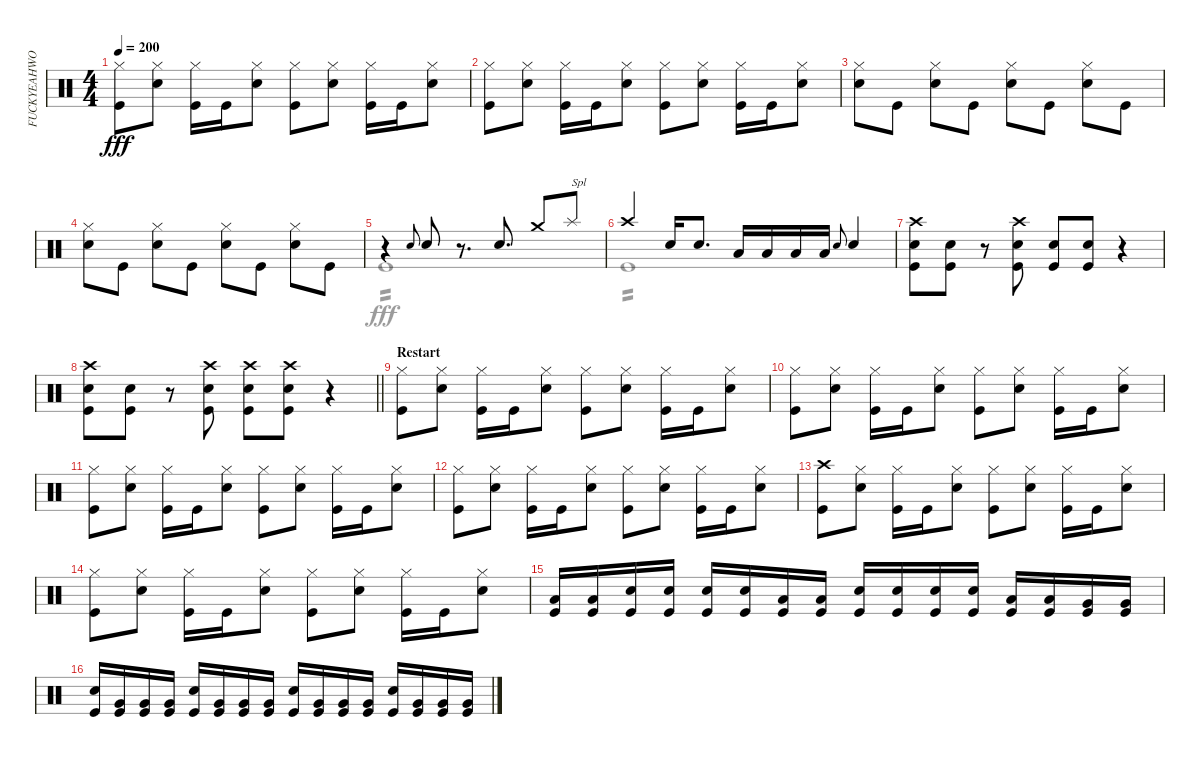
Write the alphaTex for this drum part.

\track ("FUCKYEAHWOOTDAVEMACKINTOSH!(Percussion)" "FUCKYEAHWO") {instrument percussion}
\staff {score}
\articulation defaults
\voice
\ts (4 4)
\tempo 200
\clef neutral
\ks c
("Kick (hit)" "Hi-Hat (closed)").8{dy fff} ("Snare (hit) 2" "Hi-Hat (closed)").8 ("Kick (hit)" "Hi-Hat (closed)").16 "Kick (hit)".16 ("Snare (hit) 2" "Hi-Hat (closed)").8 ("Kick (hit)" "Hi-Hat (closed)").8 ("Snare (hit) 2" "Hi-Hat (closed)").8 ("Kick (hit)" "Hi-Hat (closed)").16 "Kick (hit)".16 ("Snare (hit) 2" "Hi-Hat (closed)").8 |
("Kick (hit)" "Hi-Hat (closed)").8 ("Snare (hit) 2" "Hi-Hat (closed)").8 ("Kick (hit)" "Hi-Hat (closed)").16 "Kick (hit)".16 ("Snare (hit) 2" "Hi-Hat (closed)").8 ("Kick (hit)" "Hi-Hat (closed)").8 ("Snare (hit) 2" "Hi-Hat (closed)").8 ("Kick (hit)" "Hi-Hat (closed)").16 "Kick (hit)".16 ("Snare (hit) 2" "Hi-Hat (closed)").8 |
("Snare (hit) 2" "Hi-Hat (closed)").8 "Kick (hit)".8 ("Snare (hit) 2" "Hi-Hat (closed)").8 "Kick (hit)".8 ("Snare (hit) 2" "Hi-Hat (closed)").8 "Kick (hit)".8 ("Snare (hit) 2" "Hi-Hat (closed)").8 "Kick (hit)".8 |
("Snare (hit) 2" "Hi-Hat (closed)").8 "Kick (hit)".8 ("Snare (hit) 2" "Hi-Hat (closed)").8 "Kick (hit)".8 ("Snare (hit) 2" "Hi-Hat (closed)").8 "Kick (hit)".8 ("Snare (hit) 2" "Hi-Hat (closed)").8 "Kick (hit)".8 |
r.4 "Snare (hit) 2".8{gr onbeat} "Snare (hit) 2".8 r.8{d} "Snare (hit) 2".8{d} "Crash medium (hit)".8 "Splash (hit)".8{txt "Spl"} |
"Crash high (hit)".4 "Snare (hit) 2".16 "Snare (hit) 2".8{d} "Low Floor Tom (hit)".16 "Low Floor Tom (hit)".16 "Low Floor Tom (hit)".16 "Low Floor Tom (hit)".16 "Snare (hit) 2".8{gr onbeat} "Snare (hit) 2".4 |
("Kick (hit)" "Snare (hit) 2" "Crash high (hit)").8 ("Snare (hit) 2" "Kick (hit)").8 r.8 ("Kick (hit)" "Snare (hit) 2" "Crash high (hit)").8 ("Kick (hit)" "Snare (hit) 2").8 ("Kick (hit)" "Snare (hit) 2").8 r.4 |
\barLineRight lightlight
("Kick (hit)" "Snare (hit) 2" "Crash high (hit)").8 ("Kick (hit)" "Snare (hit) 2").8 r.8 ("Kick (hit)" "Snare (hit) 2" "Crash high (hit)").8 ("Kick (hit)" "Snare (hit) 2" "Crash high (hit)").8 ("Kick (hit)" "Snare (hit) 2" "Crash high (hit)").8 r.4 |
\section ("" "Restart")
("Kick (hit)" "Hi-Hat (closed)").8 ("Snare (hit) 2" "Hi-Hat (closed)").8 ("Kick (hit)" "Hi-Hat (closed)").16 "Kick (hit)".16 ("Snare (hit) 2" "Hi-Hat (closed)").8 ("Kick (hit)" "Hi-Hat (closed)").8 ("Snare (hit) 2" "Hi-Hat (closed)").8 ("Kick (hit)" "Hi-Hat (closed)").16 "Kick (hit)".16 ("Snare (hit) 2" "Hi-Hat (closed)").8 |
("Kick (hit)" "Hi-Hat (closed)").8 ("Snare (hit) 2" "Hi-Hat (closed)").8 ("Kick (hit)" "Hi-Hat (closed)").16 "Kick (hit)".16 ("Snare (hit) 2" "Hi-Hat (closed)").8 ("Kick (hit)" "Hi-Hat (closed)").8 ("Snare (hit) 2" "Hi-Hat (closed)").8 ("Kick (hit)" "Hi-Hat (closed)").16 "Kick (hit)".16 ("Snare (hit) 2" "Hi-Hat (closed)").8 |
("Kick (hit)" "Hi-Hat (closed)").8 ("Snare (hit) 2" "Hi-Hat (closed)").8 ("Kick (hit)" "Hi-Hat (closed)").16 "Kick (hit)".16 ("Snare (hit) 2" "Hi-Hat (closed)").8 ("Kick (hit)" "Hi-Hat (closed)").8 ("Snare (hit) 2" "Hi-Hat (closed)").8 ("Kick (hit)" "Hi-Hat (closed)").16 "Kick (hit)".16 ("Snare (hit) 2" "Hi-Hat (closed)").8 |
("Kick (hit)" "Hi-Hat (closed)").8 ("Snare (hit) 2" "Hi-Hat (closed)").8 ("Kick (hit)" "Hi-Hat (closed)").16 "Kick (hit)".16 ("Snare (hit) 2" "Hi-Hat (closed)").8 ("Kick (hit)" "Hi-Hat (closed)").8 ("Snare (hit) 2" "Hi-Hat (closed)").8 ("Kick (hit)" "Hi-Hat (closed)").16 "Kick (hit)".16 ("Snare (hit) 2" "Hi-Hat (closed)").8 |
("Kick (hit)" "Crash high (hit)").8 ("Snare (hit) 2" "Hi-Hat (closed)").8 ("Kick (hit)" "Hi-Hat (closed)").16 "Kick (hit)".16 ("Snare (hit) 2" "Hi-Hat (closed)").8 ("Kick (hit)" "Hi-Hat (closed)").8 ("Snare (hit) 2" "Hi-Hat (closed)").8 ("Kick (hit)" "Hi-Hat (closed)").16 "Kick (hit)".16 ("Snare (hit) 2" "Hi-Hat (closed)").8 |
("Kick (hit)" "Hi-Hat (closed)").8 ("Snare (hit) 2" "Hi-Hat (closed)").8 ("Kick (hit)" "Hi-Hat (closed)").16 "Kick (hit)".16 ("Snare (hit) 2" "Hi-Hat (closed)").8 ("Kick (hit)" "Hi-Hat (closed)").8 ("Snare (hit) 2" "Hi-Hat (closed)").8 ("Kick (hit)" "Hi-Hat (closed)").16 "Kick (hit)".16 ("Snare (hit) 2" "Hi-Hat (closed)").8 |
("Low Tom (hit)" "Kick (hit)").16 ("Low Tom (hit)" "Kick (hit)").16 ("Snare (hit) 2" "Kick (hit)").16 ("Snare (hit) 2" "Kick (hit)").16 ("Snare (hit) 2" "Kick (hit)").16 ("Snare (hit) 2" "Kick (hit)").16 ("Low Tom (hit)" "Kick (hit)").16 ("Low Tom (hit)" "Kick (hit)").16 ("Snare (hit) 2" "Kick (hit)").16 ("Snare (hit) 2" "Kick (hit)").16 ("Snare (hit) 2" "Kick (hit)").16 ("Snare (hit) 2" "Kick (hit)").16 ("Low Tom (hit)" "Kick (hit)").16 ("Low Tom (hit)" "Kick (hit)").16 ("Very Low Tom (hit)" "Kick (hit)").16 ("Very Low Tom (hit)" "Kick (hit)").16 |
("Snare (hit) 2" "Kick (hit)").16 ("Very Low Tom (hit)" "Kick (hit)").16 ("Very Low Tom (hit)" "Kick (hit)").16 ("Very Low Tom (hit)" "Kick (hit)").16 ("Snare (hit) 2" "Kick (hit)").16 ("Very Low Tom (hit)" "Kick (hit)").16 ("Very Low Tom (hit)" "Kick (hit)").16 ("Very Low Tom (hit)" "Kick (hit)").16 ("Snare (hit) 2" "Kick (hit)").16 ("Very Low Tom (hit)" "Kick (hit)").16 ("Very Low Tom (hit)" "Kick (hit)").16 ("Very Low Tom (hit)" "Kick (hit)").16 ("Snare (hit) 2" "Kick (hit)").16 ("Very Low Tom (hit)" "Kick (hit)").16 ("Very Low Tom (hit)" "Kick (hit)").16 ("Very Low Tom (hit)" "Kick (hit)").16
\voice
\clef neutral
\ottava regular
\simile none
\ks c
|
|
|
|
"Kick (hit)".1{tp 2} |
"Kick (hit)".1{tp 2} |
|
\barLineRight lightlight
|
|
|
|
|
|
|
|
